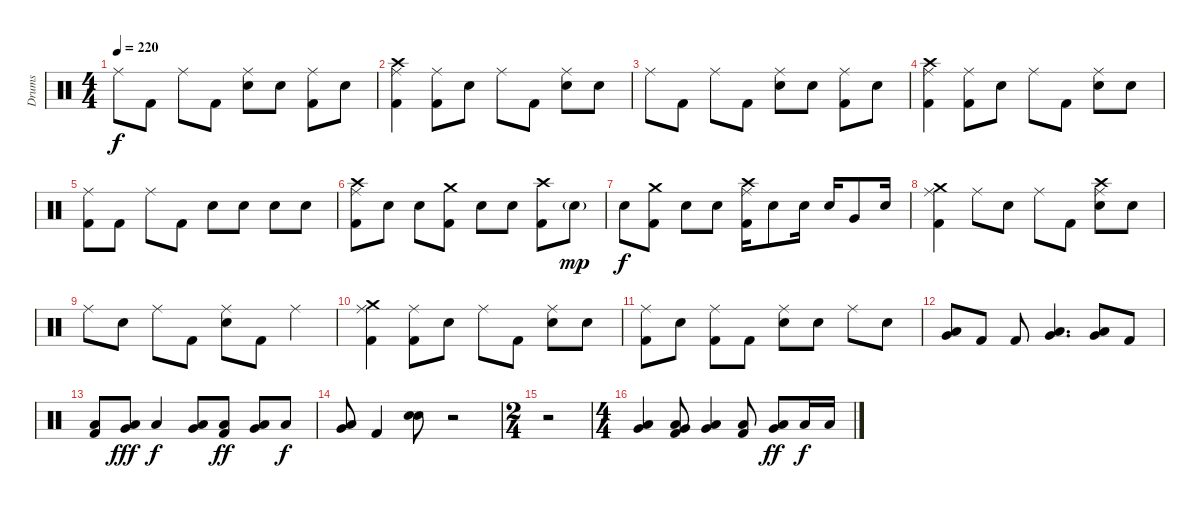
\track ("Drums" "Drums") {instrument percussion}
\staff {score}
\articulation defaults
\ts (4 4)
\tempo 220
\clef neutral
\ks c "Ride (middle)".8{dy f} "Kick (hit) 2".8 "Ride (middle)".8 "Kick (hit) 2".8
("Ride (middle)" "Electric Snare (hit)").8 "Electric Snare (hit)".8 ("Ride (middle)" "Kick (hit) 2").8 "Electric Snare (hit)".8 |
("Crash high (hit)" "Ride (middle)" "Kick (hit) 2").4 ("Ride (middle)" "Kick (hit) 2").8 "Electric Snare (hit)".8 "Ride (middle)".8 "Kick (hit) 2".8 ("Ride (middle)" "Electric Snare (hit)").8 "Electric Snare (hit)".8 |
"Ride (middle)".8 "Kick (hit) 2".8 "Ride (middle)".8 "Kick (hit) 2".8 ("Ride (middle)" "Electric Snare (hit)").8 "Electric Snare (hit)".8 ("Ride (middle)" "Kick (hit) 2").8 "Electric Snare (hit)".8 |
("Crash high (hit)" "Ride (middle)" "Kick (hit) 2").4 ("Ride (middle)" "Kick (hit) 2").8 "Electric Snare (hit)".8 "Ride (middle)".8 "Kick (hit) 2".8 ("Ride (middle)" "Electric Snare (hit)").8 "Electric Snare (hit)".8 |
("Ride (middle)" "Kick (hit) 2").8 "Kick (hit) 2".8 "Ride (middle)".8 "Kick (hit) 2".8 "Electric Snare (hit)".8 "Electric Snare (hit)".8 "Electric Snare (hit)".8 "Electric Snare (hit)".8 |
("Crash high (hit)" "Ride (middle)" "Kick (hit) 2").8 "Electric Snare (hit)".8 "Electric Snare (hit)".8 ("Crash medium (hit)" "Kick (hit) 2").8 "Electric Snare (hit)".8 "Electric Snare (hit)".8 ("Crash high (hit)" "Kick (hit) 2").8 "Electric Snare (hit)"{g}.8{dy mp} |
"Electric Snare (hit)".8{dy f} ("Crash medium (hit)" "Kick (hit) 2").8 "Electric Snare (hit)".8 "Electric Snare (hit)".8 ("Crash high (hit)" "Ride (middle)" "Kick (hit) 2").16 "Electric Snare (hit)".8 "Electric Snare (hit)".16 "Electric Snare (hit)".16 "Very Low Tom (hit)".8 "Electric Snare (hit)".16 |
("Crash medium (hit)" "Ride (middle)" "Kick (hit) 2").4 "Ride (middle)".8 "Electric Snare (hit)".8 "Ride (middle)".8 "Kick (hit) 2".8 ("Crash high (hit)" "Ride (middle)" "Electric Snare (hit)").8 "Electric Snare (hit)".8 |
"Ride (middle)".8 "Electric Snare (hit)".8 "Ride (middle)".8 "Kick (hit) 2".8 ("Ride (middle)" "Electric Snare (hit)").8 "Kick (hit) 2".8 "Ride (middle)".4 |
("Crash medium (hit)" "Ride (middle)" "Kick (hit) 2").4 ("Ride (middle)" "Kick (hit) 2").8 "Electric Snare (hit)".8 "Ride (middle)".8 "Kick (hit) 2".8 ("Ride (middle)" "Electric Snare (hit)").8 "Electric Snare (hit)".8 |
("Ride (middle)" "Kick (hit) 2").8 "Electric Snare (hit)".8 ("Ride (middle)" "Kick (hit) 2").8 "Kick (hit) 2".8 ("Ride (middle)" "Electric Snare (hit)").8 "Electric Snare (hit)".8 "Ride (middle)".8 "Electric Snare (hit)".8 |
("Very Low Tom (hit)" "Low Floor Tom (hit)").8 "Kick (hit) 2".8 "Kick (hit) 2".8 ("Very Low Tom (hit)" "Low Floor Tom (hit)").4{d} ("Low Tom (hit)" "Very Low Tom (hit)").8 "Kick (hit) 2".8 |
("Low Floor Tom (hit)" "Kick (hit) 2").8 ("Low Tom (hit)" "Very Low Tom (hit)").8{dy fff} "Low Floor Tom (hit)".4{dy f} ("Low Tom (hit)" "Very Low Tom (hit)").8 ("Low Floor Tom (hit)" "Kick (hit) 2").8{dy ff} ("Low Tom (hit)" "Very Low Tom (hit)").8 "Low Floor Tom (hit)".8{dy f} |
("Low Tom (hit)" "Very Low Tom (hit)").8 "Kick (hit) 2".4 ("Electric Snare (hit)" "Snare (hit) 2").8 r.2 |
\ts (2 4)
r.2 |
\ts (4 4)
("Very Low Tom (hit)" "Low Floor Tom (hit)").4 ("Low Tom (hit)" "Very Low Tom (hit)" "Kick (hit) 2").8 ("Very Low Tom (hit)" "Low Floor Tom (hit)").4 ("Low Floor Tom (hit)" "Kick (hit) 2").8 ("Low Tom (hit)" "Very Low Tom (hit)").8{dy ff} "Low Floor Tom (hit)".16{dy f} "Low Floor Tom (hit)".16
